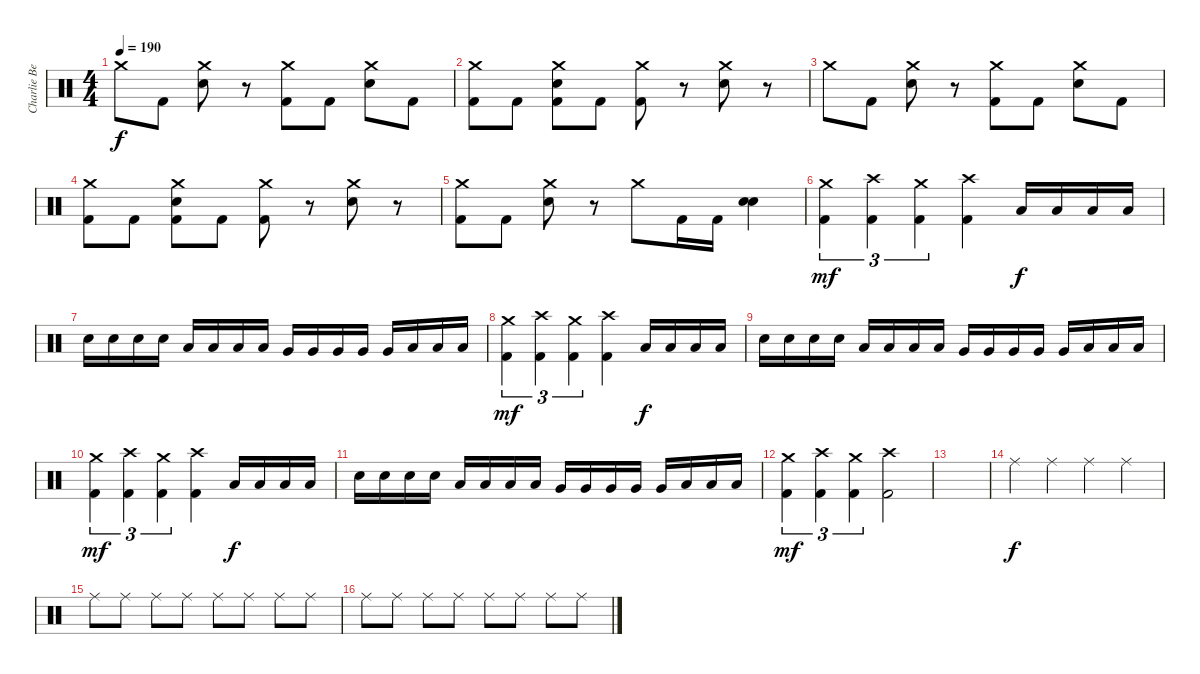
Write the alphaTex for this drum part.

\track ("Charlie Benante" "Charlie Be") {instrument percussion}
\staff {score}
\articulation defaults
\ts (4 4)
\tempo 190
\clef neutral
\ks c "Crash medium (hit)".8{dy f} "Kick (hit) 2".8
("Snare (hit) 2" "Crash medium (hit)").8 r.8 ("Kick (hit) 2" "Crash medium (hit)").8 "Kick (hit) 2".8 ("Snare (hit) 2" "Crash medium (hit)").8 "Kick (hit) 2".8 |
("Kick (hit) 2" "Crash medium (hit)").8 "Kick (hit) 2".8 ("Kick (hit) 2" "Crash medium (hit)" "Snare (hit) 2").8 "Kick (hit) 2".8 ("Kick (hit) 2" "Crash medium (hit)").8 r.8 ("Snare (hit) 2" "Crash medium (hit)").8 r.8 |
"Crash medium (hit)".8 "Kick (hit) 2".8 ("Snare (hit) 2" "Crash medium (hit)").8 r.8 ("Kick (hit) 2" "Crash medium (hit)").8 "Kick (hit) 2".8 ("Snare (hit) 2" "Crash medium (hit)").8 "Kick (hit) 2".8 |
("Kick (hit) 2" "Crash medium (hit)").8 "Kick (hit) 2".8 ("Kick (hit) 2" "Crash medium (hit)" "Snare (hit) 2").8 "Kick (hit) 2".8 ("Kick (hit) 2" "Crash medium (hit)").8 r.8 ("Snare (hit) 2" "Crash medium (hit)").8 r.8 |
("Kick (hit) 2" "Crash medium (hit)").8 "Kick (hit) 2".8 ("Snare (hit) 2" "Crash medium (hit)").8 r.8 "Crash medium (hit)".8 "Kick (hit) 2".16 "Kick (hit) 2".16 ("Snare (hit) 2" "Snare (hit) 2").4{bd 480} |
("Kick (hit) 2" "Crash medium (hit)").4{tu (3 2) dy mf} ("Kick (hit) 2" "Crash high (hit)").4{tu (3 2)} ("Kick (hit) 2" "Crash medium (hit)").4{tu (3 2)} ("Kick (hit) 2" "Crash high (hit)").4 "Low Tom (hit)".16{dy f} "Low Tom (hit)".16 "Low Tom (hit)".16 "Low Tom (hit)".16 |
"Snare (hit) 2".16 "Snare (hit) 2".16 "Snare (hit) 2".16 "Snare (hit) 2".16 "Low Tom (hit)".16 "Low Tom (hit)".16 "Low Tom (hit)".16 "Low Tom (hit)".16 "Very Low Tom (hit)".16 "Very Low Tom (hit)".16 "Very Low Tom (hit)".16 "Very Low Tom (hit)".16 "Very Low Tom (hit)".16 "Low Floor Tom (hit)".16 "Low Floor Tom (hit)".16 "Low Floor Tom (hit)".16 |
("Kick (hit) 2" "Crash medium (hit)").4{tu (3 2) dy mf} ("Kick (hit) 2" "Crash high (hit)").4{tu (3 2)} ("Kick (hit) 2" "Crash medium (hit)").4{tu (3 2)} ("Kick (hit) 2" "Crash high (hit)").4 "Low Tom (hit)".16{dy f} "Low Tom (hit)".16 "Low Tom (hit)".16 "Low Tom (hit)".16 |
"Snare (hit) 2".16 "Snare (hit) 2".16 "Snare (hit) 2".16 "Snare (hit) 2".16 "Low Tom (hit)".16 "Low Tom (hit)".16 "Low Tom (hit)".16 "Low Tom (hit)".16 "Very Low Tom (hit)".16 "Very Low Tom (hit)".16 "Very Low Tom (hit)".16 "Very Low Tom (hit)".16 "Very Low Tom (hit)".16 "Low Floor Tom (hit)".16 "Low Floor Tom (hit)".16 "Low Floor Tom (hit)".16 |
("Kick (hit) 2" "Crash medium (hit)").4{tu (3 2) dy mf} ("Kick (hit) 2" "Crash high (hit)").4{tu (3 2)} ("Kick (hit) 2" "Crash medium (hit)").4{tu (3 2)} ("Kick (hit) 2" "Crash high (hit)").4 "Low Tom (hit)".16{dy f} "Low Tom (hit)".16 "Low Tom (hit)".16 "Low Tom (hit)".16 |
"Snare (hit) 2".16 "Snare (hit) 2".16 "Snare (hit) 2".16 "Snare (hit) 2".16 "Low Tom (hit)".16 "Low Tom (hit)".16 "Low Tom (hit)".16 "Low Tom (hit)".16 "Very Low Tom (hit)".16 "Very Low Tom (hit)".16 "Very Low Tom (hit)".16 "Very Low Tom (hit)".16 "Very Low Tom (hit)".16 "Low Floor Tom (hit)".16 "Low Floor Tom (hit)".16 "Low Floor Tom (hit)".16 |
("Kick (hit) 2" "Crash medium (hit)").4{tu (3 2) dy mf} ("Kick (hit) 2" "Crash high (hit)").4{tu (3 2)} ("Kick (hit) 2" "Crash medium (hit)").4{tu (3 2)} ("Kick (hit) 2" "Crash high (hit)").2 |
|
"Ride (middle)".4{dy f} "Ride (middle)".4 "Ride (middle)".4 "Ride (middle)".4 |
"Ride (middle)".8 "Ride (middle)".8 "Ride (middle)".8 "Ride (middle)".8 "Ride (middle)".8 "Ride (middle)".8 "Ride (middle)".8 "Ride (middle)".8 |
"Ride (middle)".8 "Ride (middle)".8 "Ride (middle)".8 "Ride (middle)".8 "Ride (middle)".8 "Ride (middle)".8 "Ride (middle)".8 "Ride (middle)".8
